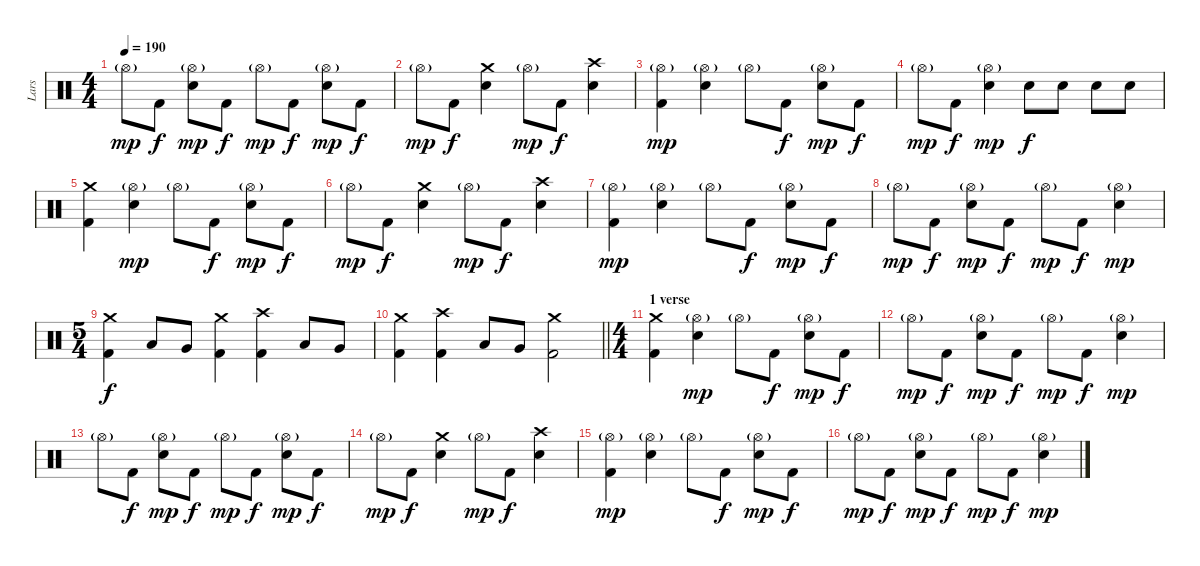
\track ("Lars" "Lars") {instrument percussion}
\staff {score}
\articulation defaults
\ts (4 4)
\tempo 190
\clef neutral
\ks c "Hi-Hat (open)"{g}.8{dy mp} "Kick (hit) 2".8{dy f}
("Hi-Hat (open)"{g} "Electric Snare (hit)").8{dy mp} "Kick (hit) 2".8{dy f} "Hi-Hat (open)"{g}.8{dy mp} "Kick (hit) 2".8{dy f} ("Hi-Hat (open)"{g} "Electric Snare (hit)").8{dy mp} "Kick (hit) 2".8{dy f} |
"Hi-Hat (open)"{g}.8{dy mp} "Kick (hit) 2".8{dy f} ("Crash medium (hit)" "Electric Snare (hit)").4 "Hi-Hat (open)"{g}.8{dy mp} "Kick (hit) 2".8{dy f} ("Crash high (hit)" "Electric Snare (hit)").4 |
("Hi-Hat (open)"{g} "Kick (hit) 2").4{dy mp} ("Hi-Hat (open)"{g} "Electric Snare (hit)").4 "Hi-Hat (open)"{g}.8 "Kick (hit) 2".8{dy f} ("Hi-Hat (open)"{g} "Electric Snare (hit)").8{dy mp} "Kick (hit) 2".8{dy f} |
"Hi-Hat (open)"{g}.8{dy mp} "Kick (hit) 2".8{dy f} ("Hi-Hat (open)"{g} "Electric Snare (hit)").4{dy mp} "Electric Snare (hit)".8{dy f} "Electric Snare (hit)".8 "Electric Snare (hit)".8 "Electric Snare (hit)".8 |
("Crash medium (hit)" "Kick (hit) 2").4 ("Hi-Hat (open)"{g} "Electric Snare (hit)").4{dy mp} "Hi-Hat (open)"{g}.8 "Kick (hit) 2".8{dy f} ("Hi-Hat (open)"{g} "Electric Snare (hit)").8{dy mp} "Kick (hit) 2".8{dy f} |
"Hi-Hat (open)"{g}.8{dy mp} "Kick (hit) 2".8{dy f} ("Crash medium (hit)" "Electric Snare (hit)").4 "Hi-Hat (open)"{g}.8{dy mp} "Kick (hit) 2".8{dy f} ("Crash high (hit)" "Electric Snare (hit)").4 |
("Hi-Hat (open)"{g} "Kick (hit) 2").4{dy mp} ("Hi-Hat (open)"{g} "Electric Snare (hit)").4 "Hi-Hat (open)"{g}.8 "Kick (hit) 2".8{dy f} ("Hi-Hat (open)"{g} "Electric Snare (hit)").8{dy mp} "Kick (hit) 2".8{dy f} |
"Hi-Hat (open)"{g}.8{dy mp} "Kick (hit) 2".8{dy f} ("Hi-Hat (open)"{g} "Electric Snare (hit)").8{dy mp} "Kick (hit) 2".8{dy f} "Hi-Hat (open)"{g}.8{dy mp} "Kick (hit) 2".8{dy f} ("Hi-Hat (open)"{g} "Electric Snare (hit)").4{dy mp} |
\ts (5 4)
("Crash medium (hit)" "Kick (hit) 2").4{dy f} "Low Tom (hit)".8 "Very Low Tom (hit)".8 ("Crash medium (hit)" "Kick (hit) 2").4 ("Crash high (hit)" "Kick (hit) 2").4 "Low Tom (hit)".8 "Very Low Tom (hit)".8 |
\barLineRight lightlight
("Crash medium (hit)" "Kick (hit) 2").4 ("Crash high (hit)" "Kick (hit) 2").4 "Low Tom (hit)".8 "Very Low Tom (hit)".8 ("Crash medium (hit)" "Kick (hit) 2").2 |
\ts (4 4)
\section ("" "1 verse")
("Crash medium (hit)" "Kick (hit) 2").4 ("Hi-Hat (open)"{g} "Electric Snare (hit)").4{dy mp} "Hi-Hat (open)"{g}.8 "Kick (hit) 2".8{dy f} ("Hi-Hat (open)"{g} "Electric Snare (hit)").8{dy mp} "Kick (hit) 2".8{dy f} |
"Hi-Hat (open)"{g}.8{dy mp} "Kick (hit) 2".8{dy f} ("Hi-Hat (open)"{g} "Electric Snare (hit)").8{dy mp} "Kick (hit) 2".8{dy f} "Hi-Hat (open)"{g}.8{dy mp} "Kick (hit) 2".8{dy f} ("Hi-Hat (open)"{g} "Electric Snare (hit)").4{dy mp} |
"Hi-Hat (open)"{g}.8 "Kick (hit) 2".8{dy f} ("Hi-Hat (open)"{g} "Electric Snare (hit)").8{dy mp} "Kick (hit) 2".8{dy f} "Hi-Hat (open)"{g}.8{dy mp} "Kick (hit) 2".8{dy f} ("Hi-Hat (open)"{g} "Electric Snare (hit)").8{dy mp} "Kick (hit) 2".8{dy f} |
"Hi-Hat (open)"{g}.8{dy mp} "Kick (hit) 2".8{dy f} ("Crash medium (hit)" "Electric Snare (hit)").4 "Hi-Hat (open)"{g}.8{dy mp} "Kick (hit) 2".8{dy f} ("Crash high (hit)" "Electric Snare (hit)").4 |
("Hi-Hat (open)"{g} "Kick (hit) 2").4{dy mp} ("Hi-Hat (open)"{g} "Electric Snare (hit)").4 "Hi-Hat (open)"{g}.8 "Kick (hit) 2".8{dy f} ("Hi-Hat (open)"{g} "Electric Snare (hit)").8{dy mp} "Kick (hit) 2".8{dy f} |
"Hi-Hat (open)"{g}.8{dy mp} "Kick (hit) 2".8{dy f} ("Hi-Hat (open)"{g} "Electric Snare (hit)").8{dy mp} "Kick (hit) 2".8{dy f} "Hi-Hat (open)"{g}.8{dy mp} "Kick (hit) 2".8{dy f} ("Hi-Hat (open)"{g} "Electric Snare (hit)").4{dy mp}
